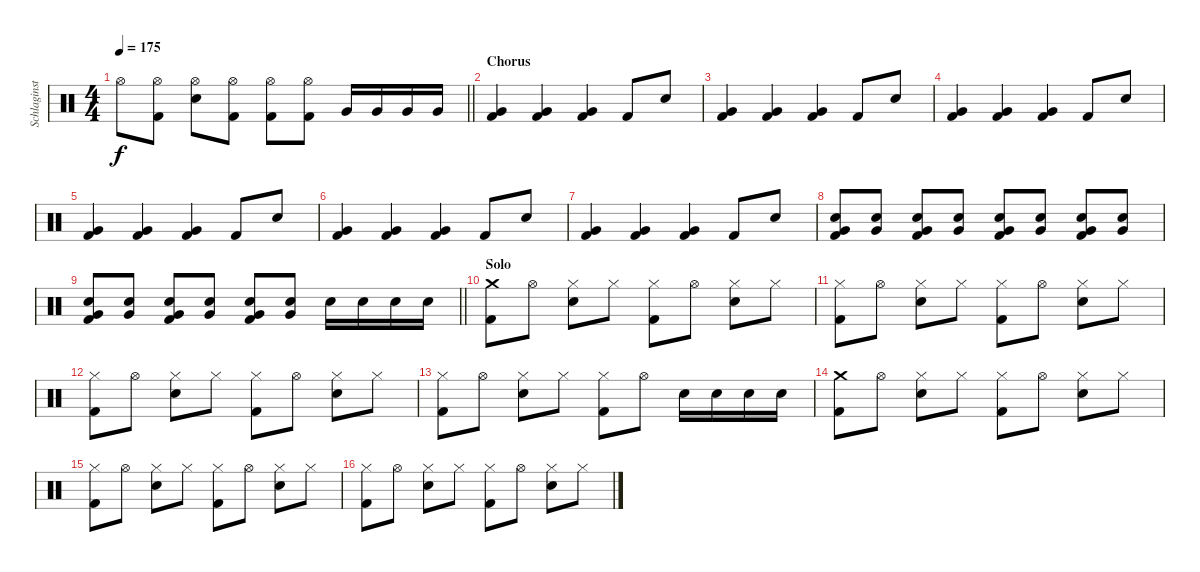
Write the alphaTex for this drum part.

\track ("Schlaginstrumente - Auswahl" "Schlaginst") {instrument percussion}
\staff {score}
\articulation defaults
\ts (4 4)
\tempo 175
\clef neutral
\barLineRight lightlight
\ks c "Hi-Hat (open)".8{dy f}
("Hi-Hat (open)" "Kick (hit) 2").8 ("Hi-Hat (open)" "Snare (hit) 2").8 ("Hi-Hat (open)" "Kick (hit) 2").8 ("Hi-Hat (open)" "Kick (hit) 2").8 ("Hi-Hat (open)" "Kick (hit) 2").8 "Very Low Tom (hit)".16 "Very Low Tom (hit)".16 "Very Low Tom (hit)".16 "Very Low Tom (hit)".16 |
\section ("" "Chorus")
("Very Low Tom (hit)" "Kick (hit) 2").4 ("Very Low Tom (hit)" "Kick (hit) 2").4 ("Very Low Tom (hit)" "Kick (hit) 2").4 "Kick (hit) 2".8 "Snare (hit) 2".8 |
("Very Low Tom (hit)" "Kick (hit) 2").4 ("Very Low Tom (hit)" "Kick (hit) 2").4 ("Very Low Tom (hit)" "Kick (hit) 2").4 "Kick (hit) 2".8 "Snare (hit) 2".8 |
("Very Low Tom (hit)" "Kick (hit) 2").4 ("Very Low Tom (hit)" "Kick (hit) 2").4 ("Very Low Tom (hit)" "Kick (hit) 2").4 "Kick (hit) 2".8 "Snare (hit) 2".8 |
("Very Low Tom (hit)" "Kick (hit) 2").4 ("Very Low Tom (hit)" "Kick (hit) 2").4 ("Very Low Tom (hit)" "Kick (hit) 2").4 "Kick (hit) 2".8 "Snare (hit) 2".8 |
("Very Low Tom (hit)" "Kick (hit) 2").4 ("Very Low Tom (hit)" "Kick (hit) 2").4 ("Very Low Tom (hit)" "Kick (hit) 2").4 "Kick (hit) 2".8 "Snare (hit) 2".8 |
("Very Low Tom (hit)" "Kick (hit) 2").4 ("Very Low Tom (hit)" "Kick (hit) 2").4 ("Very Low Tom (hit)" "Kick (hit) 2").4 "Kick (hit) 2".8 "Snare (hit) 2".8 |
("Very Low Tom (hit)" "Snare (hit) 2" "Kick (hit) 2").8 ("Very Low Tom (hit)" "Snare (hit) 2").8 ("Very Low Tom (hit)" "Snare (hit) 2" "Kick (hit) 2").8 ("Very Low Tom (hit)" "Snare (hit) 2").8 ("Very Low Tom (hit)" "Snare (hit) 2" "Kick (hit) 2").8 ("Very Low Tom (hit)" "Snare (hit) 2").8 ("Very Low Tom (hit)" "Snare (hit) 2" "Kick (hit) 2").8 ("Very Low Tom (hit)" "Snare (hit) 2").8 |
\barLineRight lightlight
("Very Low Tom (hit)" "Snare (hit) 2" "Kick (hit) 2").8 ("Very Low Tom (hit)" "Snare (hit) 2").8 ("Very Low Tom (hit)" "Snare (hit) 2" "Kick (hit) 2").8 ("Very Low Tom (hit)" "Snare (hit) 2").8 ("Very Low Tom (hit)" "Snare (hit) 2" "Kick (hit) 2").8 ("Very Low Tom (hit)" "Snare (hit) 2").8 "Snare (hit) 2".16 "Snare (hit) 2".16 "Snare (hit) 2".16 "Snare (hit) 2".16 |
\section ("" "Solo")
("Crash medium (hit)" "Kick (hit) 2").8 "Hi-Hat (open)".8 ("Hi-Hat (closed)" "Snare (hit) 2").8 "Hi-Hat (closed)".8 ("Hi-Hat (closed)" "Kick (hit) 2").8 "Hi-Hat (open)".8 ("Hi-Hat (closed)" "Snare (hit) 2").8 "Hi-Hat (closed)".8 |
("Hi-Hat (closed)" "Kick (hit) 2").8 "Hi-Hat (open)".8 ("Hi-Hat (closed)" "Snare (hit) 2").8 "Hi-Hat (closed)".8 ("Hi-Hat (closed)" "Kick (hit) 2").8 "Hi-Hat (open)".8 ("Hi-Hat (closed)" "Snare (hit) 2").8 "Hi-Hat (closed)".8 |
("Hi-Hat (closed)" "Kick (hit) 2").8 "Hi-Hat (open)".8 ("Hi-Hat (closed)" "Snare (hit) 2").8 "Hi-Hat (closed)".8 ("Hi-Hat (closed)" "Kick (hit) 2").8 "Hi-Hat (open)".8 ("Hi-Hat (closed)" "Snare (hit) 2").8 "Hi-Hat (closed)".8 |
("Hi-Hat (closed)" "Kick (hit) 2").8 "Hi-Hat (open)".8 ("Hi-Hat (closed)" "Snare (hit) 2").8 "Hi-Hat (closed)".8 ("Hi-Hat (closed)" "Kick (hit) 2").8 "Hi-Hat (open)".8 "Snare (hit) 2".16 "Snare (hit) 2".16 "Snare (hit) 2".16 "Snare (hit) 2".16 |
("Crash medium (hit)" "Kick (hit) 2").8 "Hi-Hat (open)".8 ("Hi-Hat (closed)" "Snare (hit) 2").8 "Hi-Hat (closed)".8 ("Hi-Hat (closed)" "Kick (hit) 2").8 "Hi-Hat (open)".8 ("Hi-Hat (closed)" "Snare (hit) 2").8 "Hi-Hat (closed)".8 |
("Hi-Hat (closed)" "Kick (hit) 2").8 "Hi-Hat (open)".8 ("Hi-Hat (closed)" "Snare (hit) 2").8 "Hi-Hat (closed)".8 ("Hi-Hat (closed)" "Kick (hit) 2").8 "Hi-Hat (open)".8 ("Hi-Hat (closed)" "Snare (hit) 2").8 "Hi-Hat (closed)".8 |
("Hi-Hat (closed)" "Kick (hit) 2").8 "Hi-Hat (open)".8 ("Hi-Hat (closed)" "Snare (hit) 2").8 "Hi-Hat (closed)".8 ("Hi-Hat (closed)" "Kick (hit) 2").8 "Hi-Hat (open)".8 ("Hi-Hat (closed)" "Snare (hit) 2").8 "Hi-Hat (closed)".8
